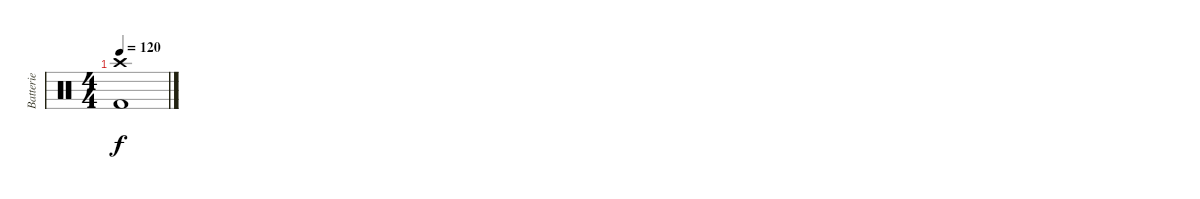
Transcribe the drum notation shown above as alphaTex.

\track ("Batterie" "Batterie") {instrument percussion}
\staff {score}
\articulation defaults
\ts (4 4)
\tempo 120
\clef neutral
\ks c
("Crash high (hit)" "Kick (hit) 2").1{dy f}
